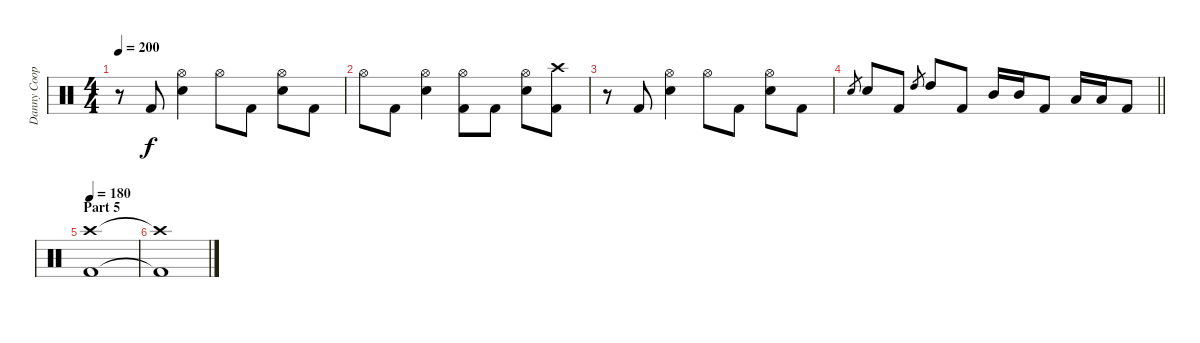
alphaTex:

\track ("Danny Cooper" "Danny Coop") {instrument percussion}
\staff {score}
\articulation defaults
\ts (4 4)
\tempo 200
\clef neutral
\ks c
r.8{dy f} "Kick (hit) 2".8 ("Hi-Hat (open)" "Snare (hit) 2").4 "Hi-Hat (open)".8 "Kick (hit) 2".8 ("Hi-Hat (open)" "Snare (hit) 2").8 "Kick (hit) 2".8 |
"Hi-Hat (open)".8 "Kick (hit) 2".8 ("Hi-Hat (open)" "Snare (hit) 2").4 ("Hi-Hat (open)" "Kick (hit) 2").8 "Kick (hit) 2".8 ("Hi-Hat (open)" "Snare (hit) 2").8 ("Crash high (hit)" "Kick (hit) 2").8 |
r.8 "Kick (hit) 2".8 ("Hi-Hat (open)" "Snare (hit) 2").4 "Hi-Hat (open)".8 "Kick (hit) 2".8 ("Hi-Hat (open)" "Snare (hit) 2").8 "Kick (hit) 2".8 |
\barLineRight lightlight "Snare (hit) 2".8{gr} "Snare (hit) 2".8 "Kick (hit) 2".8 "High Tom (hit)".8{gr} "High Tom (hit)".8 "Kick (hit) 2".8 "Mid Tom (hit)".16 "Mid Tom (hit)".16 "Kick (hit) 2".8 "Low Tom (hit)".16 "Low Tom (hit)".16 "Kick (hit) 2".8
|
\section ("" "Part 5")
\tempo 180
("Crash high (hit)" "Kick (hit) 2").1 |
("Crash high (hit)"{t} "Kick (hit) 2"{t}).1
